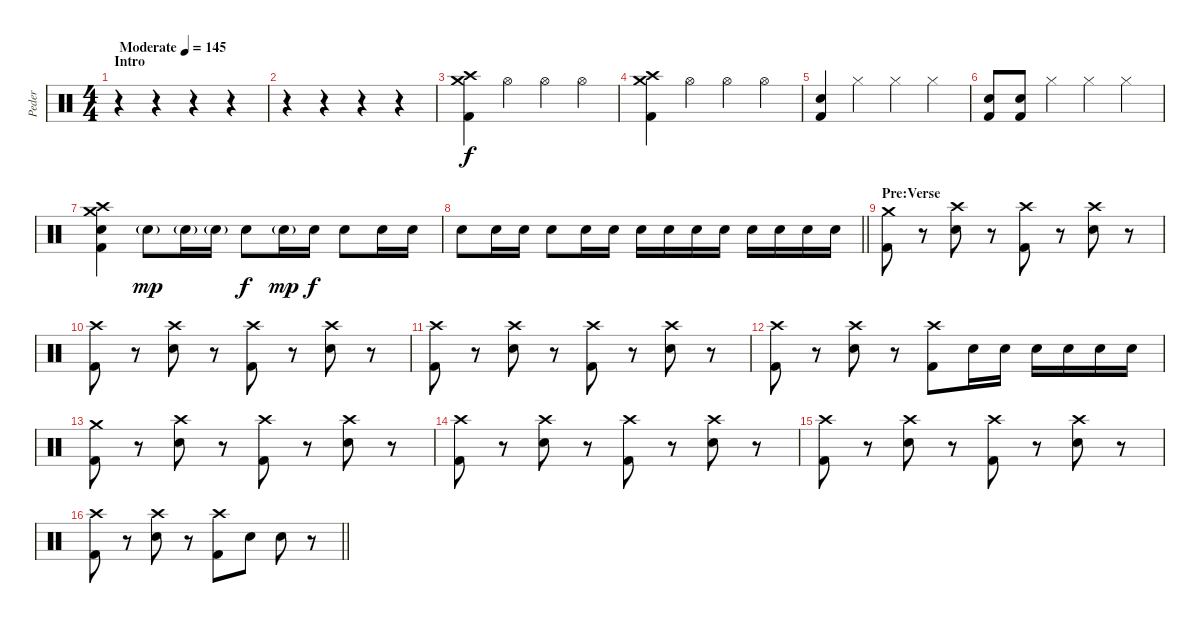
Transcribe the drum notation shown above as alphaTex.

\track ("Peder" "Peder") {instrument percussion}
\staff {score}
\articulation defaults
\ts (4 4)
\section ("" "Intro")
\tempo (145 "Moderate")
\clef neutral
\ks c
r.4{dy f} r.4 r.4 r.4 |
r.4 r.4 r.4 r.4 |
("Crash medium (hit)" "Crash high (hit)" "Kick (hit) 2").4 "Hi-Hat (open)".4 "Hi-Hat (open)".4 "Hi-Hat (open)".4 |
("Crash medium (hit)" "Crash high (hit)" "Kick (hit) 2").4 "Hi-Hat (open)".4 "Hi-Hat (open)".4 "Hi-Hat (open)".4 |
("Electric Snare (hit)" "Kick (hit) 2").4 "Hi-Hat (closed)".4 "Hi-Hat (closed)".4 "Hi-Hat (closed)".4 |
("Electric Snare (hit)" "Kick (hit) 2").8 ("Electric Snare (hit)" "Kick (hit) 2").8 "Hi-Hat (closed)".4 "Hi-Hat (closed)".4 "Hi-Hat (closed)".4 |
("Crash medium (hit)" "Crash high (hit)" "Electric Snare (hit)" "Kick (hit) 2").4 "Electric Snare (hit)"{g}.8{dy mp} "Electric Snare (hit)"{g}.16 "Electric Snare (hit)"{g}.16 "Electric Snare (hit)".8{dy f} "Electric Snare (hit)"{g}.16{dy mp} "Electric Snare (hit)".16{dy f} "Electric Snare (hit)".8 "Electric Snare (hit)".16 "Electric Snare (hit)".16 |
\barLineRight lightlight "Electric Snare (hit)".8 "Electric Snare (hit)".16 "Electric Snare (hit)".16 "Electric Snare (hit)".8 "Electric Snare (hit)".16 "Electric Snare (hit)".16 "Electric Snare (hit)".16 "Electric Snare (hit)".16 "Electric Snare (hit)".16 "Electric Snare (hit)".16 "Electric Snare (hit)".16 "Electric Snare (hit)".16 "Electric Snare (hit)".16 "Electric Snare (hit)".16
|
\section ("" "Pre:Verse")
("Crash medium (hit)" "Kick (hit) 2").8 r.8 ("Crash high (hit)" "Electric Snare (hit)").8 r.8 ("Crash high (hit)" "Kick (hit) 2").8 r.8 ("Crash high (hit)" "Electric Snare (hit)").8 r.8 |
("Crash high (hit)" "Kick (hit) 2").8 r.8 ("Crash high (hit)" "Electric Snare (hit)").8 r.8 ("Crash high (hit)" "Kick (hit) 2").8 r.8 ("Crash high (hit)" "Electric Snare (hit)").8 r.8 |
("Crash high (hit)" "Kick (hit) 2").8 r.8 ("Crash high (hit)" "Electric Snare (hit)").8 r.8 ("Crash high (hit)" "Kick (hit) 2").8 r.8 ("Crash high (hit)" "Electric Snare (hit)").8 r.8 |
("Crash high (hit)" "Kick (hit) 2").8 r.8 ("Crash high (hit)" "Electric Snare (hit)").8 r.8 ("Crash high (hit)" "Kick (hit) 2").8 "Electric Snare (hit)".16 "Electric Snare (hit)".16 "Electric Snare (hit)".16 "Electric Snare (hit)".16 "Electric Snare (hit)".16 "Electric Snare (hit)".16 |
("Crash medium (hit)" "Kick (hit) 2").8 r.8 ("Crash high (hit)" "Electric Snare (hit)").8 r.8 ("Crash high (hit)" "Kick (hit) 2").8 r.8 ("Crash high (hit)" "Electric Snare (hit)").8 r.8 |
("Crash high (hit)" "Kick (hit) 2").8 r.8 ("Crash high (hit)" "Electric Snare (hit)").8 r.8 ("Crash high (hit)" "Kick (hit) 2").8 r.8 ("Crash high (hit)" "Electric Snare (hit)").8 r.8 |
("Crash high (hit)" "Kick (hit) 2").8 r.8 ("Crash high (hit)" "Electric Snare (hit)").8 r.8 ("Crash high (hit)" "Kick (hit) 2").8 r.8 ("Crash high (hit)" "Electric Snare (hit)").8 r.8 |
\barLineRight lightlight
("Crash high (hit)" "Kick (hit) 2").8 r.8 ("Crash high (hit)" "Electric Snare (hit)").8 r.8 ("Crash high (hit)" "Kick (hit) 2").8 "Electric Snare (hit)".8 "Electric Snare (hit)".8 r.8
